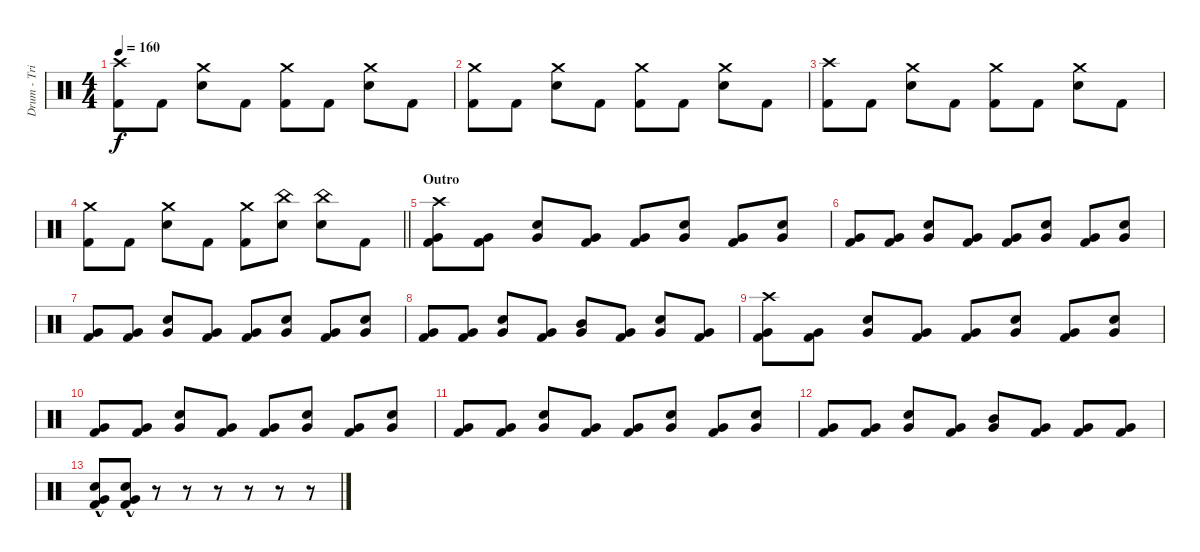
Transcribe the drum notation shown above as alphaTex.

\track ("Drum - Trian" "Drum - Tri") {instrument percussion}
\staff {score}
\articulation defaults
\ts (4 4)
\tempo 160
\clef neutral
\ks c
("Crash high (hit)" "Kick (hit) 2").8{dy f} "Kick (hit) 2".8 ("Crash medium (hit)" "Electric Snare (hit)").8 "Kick (hit) 2".8 ("Crash medium (hit)" "Kick (hit) 2").8 "Kick (hit) 2".8 ("Crash medium (hit)" "Electric Snare (hit)").8 "Kick (hit) 2".8 |
("Crash medium (hit)" "Kick (hit) 2").8 "Kick (hit) 2".8 ("Crash medium (hit)" "Electric Snare (hit)").8 "Kick (hit) 2".8 ("Crash medium (hit)" "Kick (hit) 2").8 "Kick (hit) 2".8 ("Crash medium (hit)" "Electric Snare (hit)").8 "Kick (hit) 2".8 |
("Crash high (hit)" "Kick (hit) 2").8 "Kick (hit) 2".8 ("Crash medium (hit)" "Electric Snare (hit)").8 "Kick (hit) 2".8 ("Crash medium (hit)" "Kick (hit) 2").8 "Kick (hit) 2".8 ("Crash medium (hit)" "Electric Snare (hit)").8 "Kick (hit) 2".8 |
\barLineRight lightlight
("Crash medium (hit)" "Kick (hit) 2").8 "Kick (hit) 2".8 ("Crash medium (hit)" "Electric Snare (hit)").8 "Kick (hit) 2".8 ("Crash medium (hit)" "Kick (hit) 2").8 ("China (hit)" "Electric Snare (hit)").8 ("China (hit)" "Electric Snare (hit)").8 "Kick (hit) 2".8 |
\section ("" "Outro")
("Crash high (hit)" "Very Low Tom (hit)" "Kick (hit) 2").8 ("Very Low Tom (hit)" "Kick (hit) 2").8 ("Electric Snare (hit)" "Very Low Tom (hit)").8 ("Very Low Tom (hit)" "Kick (hit) 2").8 ("Very Low Tom (hit)" "Kick (hit) 2").8 ("Electric Snare (hit)" "Very Low Tom (hit)").8 ("Very Low Tom (hit)" "Kick (hit) 2").8 ("Electric Snare (hit)" "Very Low Tom (hit)").8 |
("Very Low Tom (hit)" "Kick (hit) 2").8 ("Very Low Tom (hit)" "Kick (hit) 2").8 ("Electric Snare (hit)" "Very Low Tom (hit)").8 ("Very Low Tom (hit)" "Kick (hit) 2").8 ("Very Low Tom (hit)" "Kick (hit) 2").8 ("Electric Snare (hit)" "Very Low Tom (hit)").8 ("Very Low Tom (hit)" "Kick (hit) 2").8 ("Electric Snare (hit)" "Very Low Tom (hit)").8 |
("Very Low Tom (hit)" "Kick (hit) 2").8 ("Very Low Tom (hit)" "Kick (hit) 2").8 ("Electric Snare (hit)" "Very Low Tom (hit)").8 ("Very Low Tom (hit)" "Kick (hit) 2").8 ("Very Low Tom (hit)" "Kick (hit) 2").8 ("Electric Snare (hit)" "Very Low Tom (hit)").8 ("Very Low Tom (hit)" "Kick (hit) 2").8 ("Electric Snare (hit)" "Very Low Tom (hit)").8 |
("Very Low Tom (hit)" "Kick (hit) 2").8 ("Very Low Tom (hit)" "Kick (hit) 2").8 ("Electric Snare (hit)" "Very Low Tom (hit)").8 ("Very Low Tom (hit)" "Kick (hit) 2").8 ("Very Low Tom (hit)" "Mid Tom (hit)").8 ("Very Low Tom (hit)" "Kick (hit) 2").8 ("Electric Snare (hit)" "Very Low Tom (hit)").8 ("Very Low Tom (hit)" "Kick (hit) 2").8 |
("Crash high (hit)" "Very Low Tom (hit)" "Kick (hit) 2").8 ("Very Low Tom (hit)" "Kick (hit) 2").8 ("Electric Snare (hit)" "Very Low Tom (hit)").8 ("Very Low Tom (hit)" "Kick (hit) 2").8 ("Very Low Tom (hit)" "Kick (hit) 2").8 ("Electric Snare (hit)" "Very Low Tom (hit)").8 ("Very Low Tom (hit)" "Kick (hit) 2").8 ("Electric Snare (hit)" "Very Low Tom (hit)").8 |
("Very Low Tom (hit)" "Kick (hit) 2").8 ("Very Low Tom (hit)" "Kick (hit) 2").8 ("Electric Snare (hit)" "Very Low Tom (hit)").8 ("Very Low Tom (hit)" "Kick (hit) 2").8 ("Very Low Tom (hit)" "Kick (hit) 2").8 ("Electric Snare (hit)" "Very Low Tom (hit)").8 ("Very Low Tom (hit)" "Kick (hit) 2").8 ("Electric Snare (hit)" "Very Low Tom (hit)").8 |
("Very Low Tom (hit)" "Kick (hit) 2").8 ("Very Low Tom (hit)" "Kick (hit) 2").8 ("Electric Snare (hit)" "Very Low Tom (hit)").8 ("Very Low Tom (hit)" "Kick (hit) 2").8 ("Very Low Tom (hit)" "Kick (hit) 2").8 ("Electric Snare (hit)" "Very Low Tom (hit)").8 ("Very Low Tom (hit)" "Kick (hit) 2").8 ("Electric Snare (hit)" "Very Low Tom (hit)").8 |
("Very Low Tom (hit)" "Kick (hit) 2").8 ("Very Low Tom (hit)" "Kick (hit) 2").8 ("Electric Snare (hit)" "Very Low Tom (hit)").8 ("Very Low Tom (hit)" "Kick (hit) 2").8 ("Very Low Tom (hit)" "Mid Tom (hit)").8 ("Very Low Tom (hit)" "Kick (hit) 2").8 ("Very Low Tom (hit)" "Kick (hit) 2").8 ("Very Low Tom (hit)" "Kick (hit) 2").8 |
("Electric Snare (hit)"{hac} "Very Low Tom (hit)" "Kick (hit) 2").8 ("Electric Snare (hit)"{hac} "Very Low Tom (hit)" "Kick (hit) 2").8 r.8 r.8 r.8 r.8 r.8 r.8
